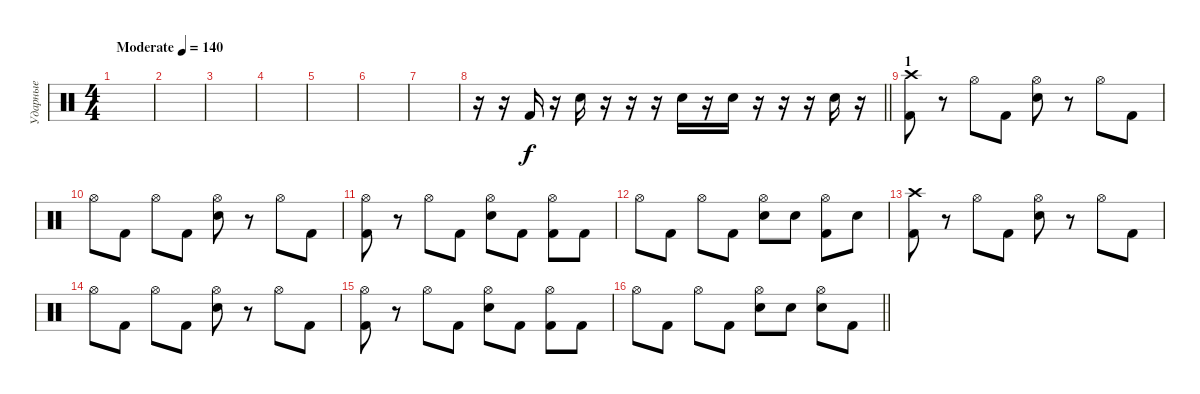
\track ("Ударные" "Ударные") {instrument percussion}
\staff {score}
\articulation defaults
\ts (4 4)
\tempo (140 "Moderate")
\clef neutral
\ks c
|
|
|
|
|
|
|
\barLineRight lightlight
r.16 r.16 "Kick (hit) 2".16 r.16 "Snare (hit) 2".16 r.16 r.16 r.16 "Snare (hit) 2".16 r.16 "Snare (hit) 2".16 r.16 r.16 r.16 "Snare (hit) 2".16 r.16 |
\section ("" "1")
("Crash high (hit)" "Kick (hit) 2").8 r.8 "Hi-Hat (open)".8 "Kick (hit) 2".8 ("Hi-Hat (open)" "Snare (hit) 2").8 r.8 "Hi-Hat (open)".8 "Kick (hit) 2".8 |
"Hi-Hat (open)".8 "Kick (hit) 2".8 "Hi-Hat (open)".8 "Kick (hit) 2".8 ("Hi-Hat (open)" "Snare (hit) 2").8 r.8 "Hi-Hat (open)".8 "Kick (hit) 2".8 |
("Hi-Hat (open)" "Kick (hit) 2").8 r.8 "Hi-Hat (open)".8 "Kick (hit) 2".8 ("Hi-Hat (open)" "Snare (hit) 2").8 "Kick (hit) 2".8 ("Hi-Hat (open)" "Kick (hit) 2").8 "Kick (hit) 2".8 |
"Hi-Hat (open)".8 "Kick (hit) 2".8 "Hi-Hat (open)".8 "Kick (hit) 2".8 ("Hi-Hat (open)" "Snare (hit) 2").8 "Snare (hit) 2".8 ("Hi-Hat (open)" "Kick (hit) 2").8 "Snare (hit) 2".8 |
("Crash high (hit)" "Kick (hit) 2").8 r.8 "Hi-Hat (open)".8 "Kick (hit) 2".8 ("Hi-Hat (open)" "Snare (hit) 2").8 r.8 "Hi-Hat (open)".8 "Kick (hit) 2".8 |
"Hi-Hat (open)".8 "Kick (hit) 2".8 "Hi-Hat (open)".8 "Kick (hit) 2".8 ("Hi-Hat (open)" "Snare (hit) 2").8 r.8 "Hi-Hat (open)".8 "Kick (hit) 2".8 |
("Hi-Hat (open)" "Kick (hit) 2").8 r.8 "Hi-Hat (open)".8 "Kick (hit) 2".8 ("Hi-Hat (open)" "Snare (hit) 2").8 "Kick (hit) 2".8 ("Hi-Hat (open)" "Kick (hit) 2").8 "Kick (hit) 2".8 |
\barLineRight lightlight "Hi-Hat (open)".8 "Kick (hit) 2".8 "Hi-Hat (open)".8 "Kick (hit) 2".8
("Hi-Hat (open)" "Snare (hit) 2").8 "Snare (hit) 2".8 ("Hi-Hat (open)" "Snare (hit) 2").8 "Kick (hit) 2".8
